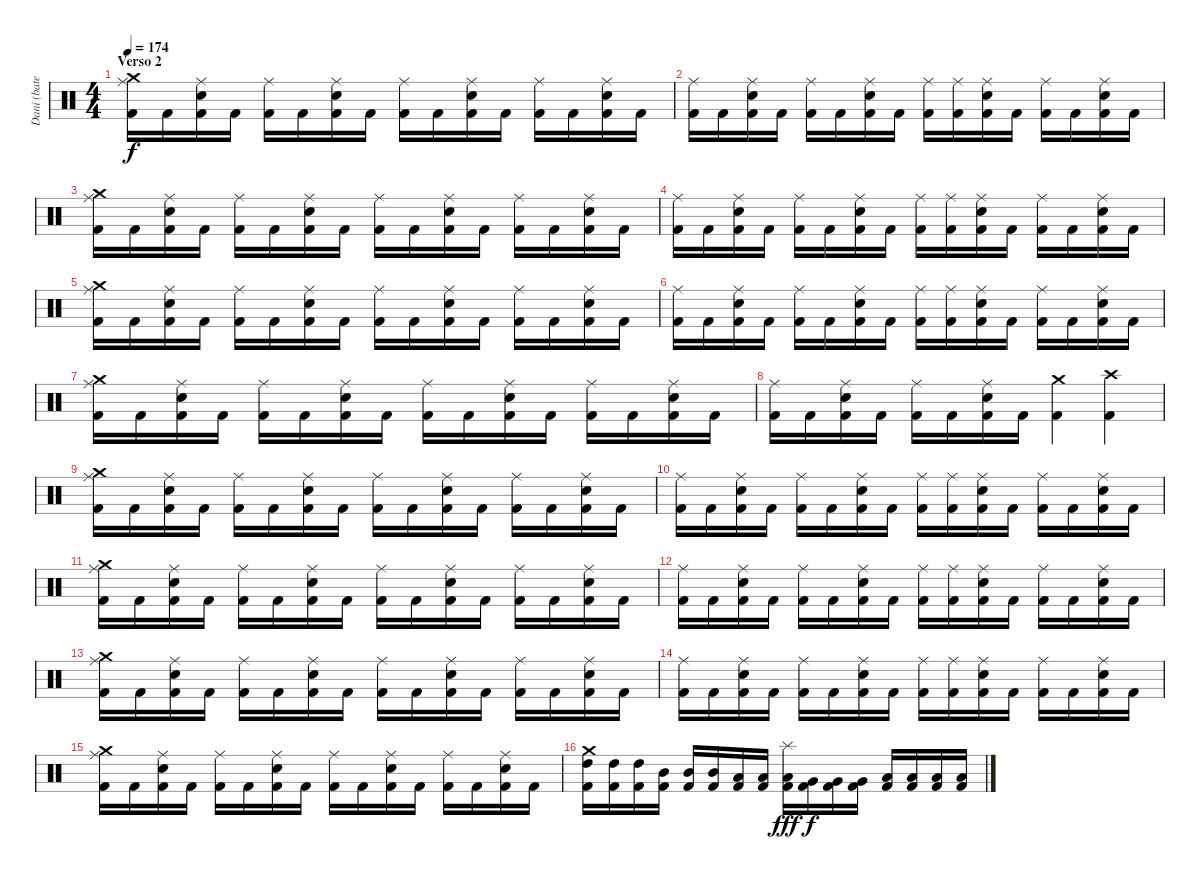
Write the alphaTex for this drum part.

\track ("Dani (batería)" "Dani (bate") {instrument percussion}
\staff {score}
\articulation defaults
\ts (4 4)
\section ("" "Verso 2")
\tempo 174
\clef neutral
\ks c
("Crash medium (hit)" "Ride (middle)" "Kick (hit) 2").16{dy f} "Kick (hit) 2".16 ("Ride (middle)" "Electric Snare (hit)" "Kick (hit) 2").16 "Kick (hit) 2".16 ("Ride (middle)" "Kick (hit) 2").16 "Kick (hit) 2".16 ("Ride (middle)" "Electric Snare (hit)" "Kick (hit) 2").16 "Kick (hit) 2".16 ("Ride (middle)" "Kick (hit) 2").16 "Kick (hit) 2".16 ("Ride (middle)" "Electric Snare (hit)" "Kick (hit) 2").16 "Kick (hit) 2".16 ("Ride (middle)" "Kick (hit) 2").16 "Kick (hit) 2".16 ("Ride (middle)" "Electric Snare (hit)" "Kick (hit) 2").16 "Kick (hit) 2".16 |
("Ride (middle)" "Kick (hit) 2").16 "Kick (hit) 2".16 ("Ride (middle)" "Electric Snare (hit)" "Kick (hit) 2").16 "Kick (hit) 2".16 ("Ride (middle)" "Kick (hit) 2").16 "Kick (hit) 2".16 ("Ride (middle)" "Electric Snare (hit)" "Kick (hit) 2").16 "Kick (hit) 2".16 ("Ride (middle)" "Kick (hit) 2").16 ("Ride (middle)" "Kick (hit) 2").16 ("Ride (middle)" "Electric Snare (hit)" "Kick (hit) 2").16 "Kick (hit) 2".16 ("Ride (middle)" "Kick (hit) 2").16 "Kick (hit) 2".16 ("Ride (middle)" "Electric Snare (hit)" "Kick (hit) 2").16 "Kick (hit) 2".16 |
("Crash medium (hit)" "Ride (middle)" "Kick (hit) 2").16 "Kick (hit) 2".16 ("Ride (middle)" "Electric Snare (hit)" "Kick (hit) 2").16 "Kick (hit) 2".16 ("Ride (middle)" "Kick (hit) 2").16 "Kick (hit) 2".16 ("Ride (middle)" "Electric Snare (hit)" "Kick (hit) 2").16 "Kick (hit) 2".16 ("Ride (middle)" "Kick (hit) 2").16 "Kick (hit) 2".16 ("Ride (middle)" "Electric Snare (hit)" "Kick (hit) 2").16 "Kick (hit) 2".16 ("Ride (middle)" "Kick (hit) 2").16 "Kick (hit) 2".16 ("Ride (middle)" "Electric Snare (hit)" "Kick (hit) 2").16 "Kick (hit) 2".16 |
("Ride (middle)" "Kick (hit) 2").16 "Kick (hit) 2".16 ("Ride (middle)" "Electric Snare (hit)" "Kick (hit) 2").16 "Kick (hit) 2".16 ("Ride (middle)" "Kick (hit) 2").16 "Kick (hit) 2".16 ("Ride (middle)" "Electric Snare (hit)" "Kick (hit) 2").16 "Kick (hit) 2".16 ("Ride (middle)" "Kick (hit) 2").16 ("Ride (middle)" "Kick (hit) 2").16 ("Ride (middle)" "Electric Snare (hit)" "Kick (hit) 2").16 "Kick (hit) 2".16 ("Ride (middle)" "Kick (hit) 2").16 "Kick (hit) 2".16 ("Ride (middle)" "Electric Snare (hit)" "Kick (hit) 2").16 "Kick (hit) 2".16 |
("Crash medium (hit)" "Ride (middle)" "Kick (hit) 2").16 "Kick (hit) 2".16 ("Ride (middle)" "Electric Snare (hit)" "Kick (hit) 2").16 "Kick (hit) 2".16 ("Ride (middle)" "Kick (hit) 2").16 "Kick (hit) 2".16 ("Ride (middle)" "Electric Snare (hit)" "Kick (hit) 2").16 "Kick (hit) 2".16 ("Ride (middle)" "Kick (hit) 2").16 "Kick (hit) 2".16 ("Ride (middle)" "Electric Snare (hit)" "Kick (hit) 2").16 "Kick (hit) 2".16 ("Ride (middle)" "Kick (hit) 2").16 "Kick (hit) 2".16 ("Ride (middle)" "Electric Snare (hit)" "Kick (hit) 2").16 "Kick (hit) 2".16 |
("Ride (middle)" "Kick (hit) 2").16 "Kick (hit) 2".16 ("Ride (middle)" "Electric Snare (hit)" "Kick (hit) 2").16 "Kick (hit) 2".16 ("Ride (middle)" "Kick (hit) 2").16 "Kick (hit) 2".16 ("Ride (middle)" "Electric Snare (hit)" "Kick (hit) 2").16 "Kick (hit) 2".16 ("Ride (middle)" "Kick (hit) 2").16 ("Ride (middle)" "Kick (hit) 2").16 ("Ride (middle)" "Electric Snare (hit)" "Kick (hit) 2").16 "Kick (hit) 2".16 ("Ride (middle)" "Kick (hit) 2").16 "Kick (hit) 2".16 ("Ride (middle)" "Electric Snare (hit)" "Kick (hit) 2").16 "Kick (hit) 2".16 |
("Crash medium (hit)" "Ride (middle)" "Kick (hit) 2").16 "Kick (hit) 2".16 ("Ride (middle)" "Electric Snare (hit)" "Kick (hit) 2").16 "Kick (hit) 2".16 ("Ride (middle)" "Kick (hit) 2").16 "Kick (hit) 2".16 ("Ride (middle)" "Electric Snare (hit)" "Kick (hit) 2").16 "Kick (hit) 2".16 ("Ride (middle)" "Kick (hit) 2").16 "Kick (hit) 2".16 ("Ride (middle)" "Electric Snare (hit)" "Kick (hit) 2").16 "Kick (hit) 2".16 ("Ride (middle)" "Kick (hit) 2").16 "Kick (hit) 2".16 ("Ride (middle)" "Electric Snare (hit)" "Kick (hit) 2").16 "Kick (hit) 2".16 |
("Ride (middle)" "Kick (hit) 2").16 "Kick (hit) 2".16 ("Ride (middle)" "Electric Snare (hit)" "Kick (hit) 2").16 "Kick (hit) 2".16 ("Ride (middle)" "Kick (hit) 2").16 "Kick (hit) 2".16 ("Ride (middle)" "Electric Snare (hit)" "Kick (hit) 2").16 "Kick (hit) 2".16 ("Crash medium (hit)" "Kick (hit) 2").4 ("Crash high (hit)" "Kick (hit) 2").4 |
("Crash medium (hit)" "Ride (middle)" "Kick (hit) 2").16 "Kick (hit) 2".16 ("Ride (middle)" "Electric Snare (hit)" "Kick (hit) 2").16 "Kick (hit) 2".16 ("Ride (middle)" "Kick (hit) 2").16 "Kick (hit) 2".16 ("Ride (middle)" "Electric Snare (hit)" "Kick (hit) 2").16 "Kick (hit) 2".16 ("Ride (middle)" "Kick (hit) 2").16 "Kick (hit) 2".16 ("Ride (middle)" "Electric Snare (hit)" "Kick (hit) 2").16 "Kick (hit) 2".16 ("Ride (middle)" "Kick (hit) 2").16 "Kick (hit) 2".16 ("Ride (middle)" "Electric Snare (hit)" "Kick (hit) 2").16 "Kick (hit) 2".16 |
("Ride (middle)" "Kick (hit) 2").16 "Kick (hit) 2".16 ("Ride (middle)" "Electric Snare (hit)" "Kick (hit) 2").16 "Kick (hit) 2".16 ("Ride (middle)" "Kick (hit) 2").16 "Kick (hit) 2".16 ("Ride (middle)" "Electric Snare (hit)" "Kick (hit) 2").16 "Kick (hit) 2".16 ("Ride (middle)" "Kick (hit) 2").16 ("Ride (middle)" "Kick (hit) 2").16 ("Ride (middle)" "Electric Snare (hit)" "Kick (hit) 2").16 "Kick (hit) 2".16 ("Ride (middle)" "Kick (hit) 2").16 "Kick (hit) 2".16 ("Ride (middle)" "Electric Snare (hit)" "Kick (hit) 2").16 "Kick (hit) 2".16 |
("Crash medium (hit)" "Ride (middle)" "Kick (hit) 2").16 "Kick (hit) 2".16 ("Ride (middle)" "Electric Snare (hit)" "Kick (hit) 2").16 "Kick (hit) 2".16 ("Ride (middle)" "Kick (hit) 2").16 "Kick (hit) 2".16 ("Ride (middle)" "Electric Snare (hit)" "Kick (hit) 2").16 "Kick (hit) 2".16 ("Ride (middle)" "Kick (hit) 2").16 "Kick (hit) 2".16 ("Ride (middle)" "Electric Snare (hit)" "Kick (hit) 2").16 "Kick (hit) 2".16 ("Ride (middle)" "Kick (hit) 2").16 "Kick (hit) 2".16 ("Ride (middle)" "Electric Snare (hit)" "Kick (hit) 2").16 "Kick (hit) 2".16 |
("Ride (middle)" "Kick (hit) 2").16 "Kick (hit) 2".16 ("Ride (middle)" "Electric Snare (hit)" "Kick (hit) 2").16 "Kick (hit) 2".16 ("Ride (middle)" "Kick (hit) 2").16 "Kick (hit) 2".16 ("Ride (middle)" "Electric Snare (hit)" "Kick (hit) 2").16 "Kick (hit) 2".16 ("Ride (middle)" "Kick (hit) 2").16 ("Ride (middle)" "Kick (hit) 2").16 ("Ride (middle)" "Electric Snare (hit)" "Kick (hit) 2").16 "Kick (hit) 2".16 ("Ride (middle)" "Kick (hit) 2").16 "Kick (hit) 2".16 ("Ride (middle)" "Electric Snare (hit)" "Kick (hit) 2").16 "Kick (hit) 2".16 |
("Crash medium (hit)" "Ride (middle)" "Kick (hit) 2").16 "Kick (hit) 2".16 ("Ride (middle)" "Electric Snare (hit)" "Kick (hit) 2").16 "Kick (hit) 2".16 ("Ride (middle)" "Kick (hit) 2").16 "Kick (hit) 2".16 ("Ride (middle)" "Electric Snare (hit)" "Kick (hit) 2").16 "Kick (hit) 2".16 ("Ride (middle)" "Kick (hit) 2").16 "Kick (hit) 2".16 ("Ride (middle)" "Electric Snare (hit)" "Kick (hit) 2").16 "Kick (hit) 2".16 ("Ride (middle)" "Kick (hit) 2").16 "Kick (hit) 2".16 ("Ride (middle)" "Electric Snare (hit)" "Kick (hit) 2").16 "Kick (hit) 2".16 |
("Ride (middle)" "Kick (hit) 2").16 "Kick (hit) 2".16 ("Ride (middle)" "Electric Snare (hit)" "Kick (hit) 2").16 "Kick (hit) 2".16 ("Ride (middle)" "Kick (hit) 2").16 "Kick (hit) 2".16 ("Ride (middle)" "Electric Snare (hit)" "Kick (hit) 2").16 "Kick (hit) 2".16 ("Ride (middle)" "Kick (hit) 2").16 ("Ride (middle)" "Kick (hit) 2").16 ("Ride (middle)" "Electric Snare (hit)" "Kick (hit) 2").16 "Kick (hit) 2".16 ("Ride (middle)" "Kick (hit) 2").16 "Kick (hit) 2".16 ("Ride (middle)" "Electric Snare (hit)" "Kick (hit) 2").16 "Kick (hit) 2".16 |
("Crash medium (hit)" "Ride (middle)" "Kick (hit) 2").16 "Kick (hit) 2".16 ("Ride (middle)" "Electric Snare (hit)" "Kick (hit) 2").16 "Kick (hit) 2".16 ("Ride (middle)" "Kick (hit) 2").16 "Kick (hit) 2".16 ("Ride (middle)" "Electric Snare (hit)" "Kick (hit) 2").16 "Kick (hit) 2".16 ("Ride (middle)" "Kick (hit) 2").16 "Kick (hit) 2".16 ("Ride (middle)" "Electric Snare (hit)" "Kick (hit) 2").16 "Kick (hit) 2".16 ("Ride (middle)" "Kick (hit) 2").16 "Kick (hit) 2".16 ("Ride (middle)" "Electric Snare (hit)" "Kick (hit) 2").16 "Kick (hit) 2".16 |
("Crash medium (hit)" "High Tom (hit)" "Kick (hit) 2").16 ("High Tom (hit)" "Kick (hit) 2").16 ("High Tom (hit)" "Kick (hit) 2").16 ("Mid Tom (hit)" "Kick (hit) 2").16 ("Mid Tom (hit)" "Kick (hit) 2").16 ("Mid Tom (hit)" "Kick (hit) 2").16 ("Low Tom (hit)" "Kick (hit) 2").16 ("Low Tom (hit)" "Kick (hit) 2").16 ("Splash (hit)" "Low Tom (hit)" "Kick (hit) 2").16{dy fff} ("Very Low Tom (hit)" "Kick (hit) 2").16{dy f} ("Very Low Tom (hit)" "Kick (hit) 2").16 ("Very Low Tom (hit)" "Kick (hit) 2").16 ("Low Floor Tom (hit)" "Kick (hit) 2").16 ("Low Floor Tom (hit)" "Kick (hit) 2").16 ("Low Floor Tom (hit)" "Kick (hit) 2").16 ("Low Floor Tom (hit)" "Kick (hit) 2").16
